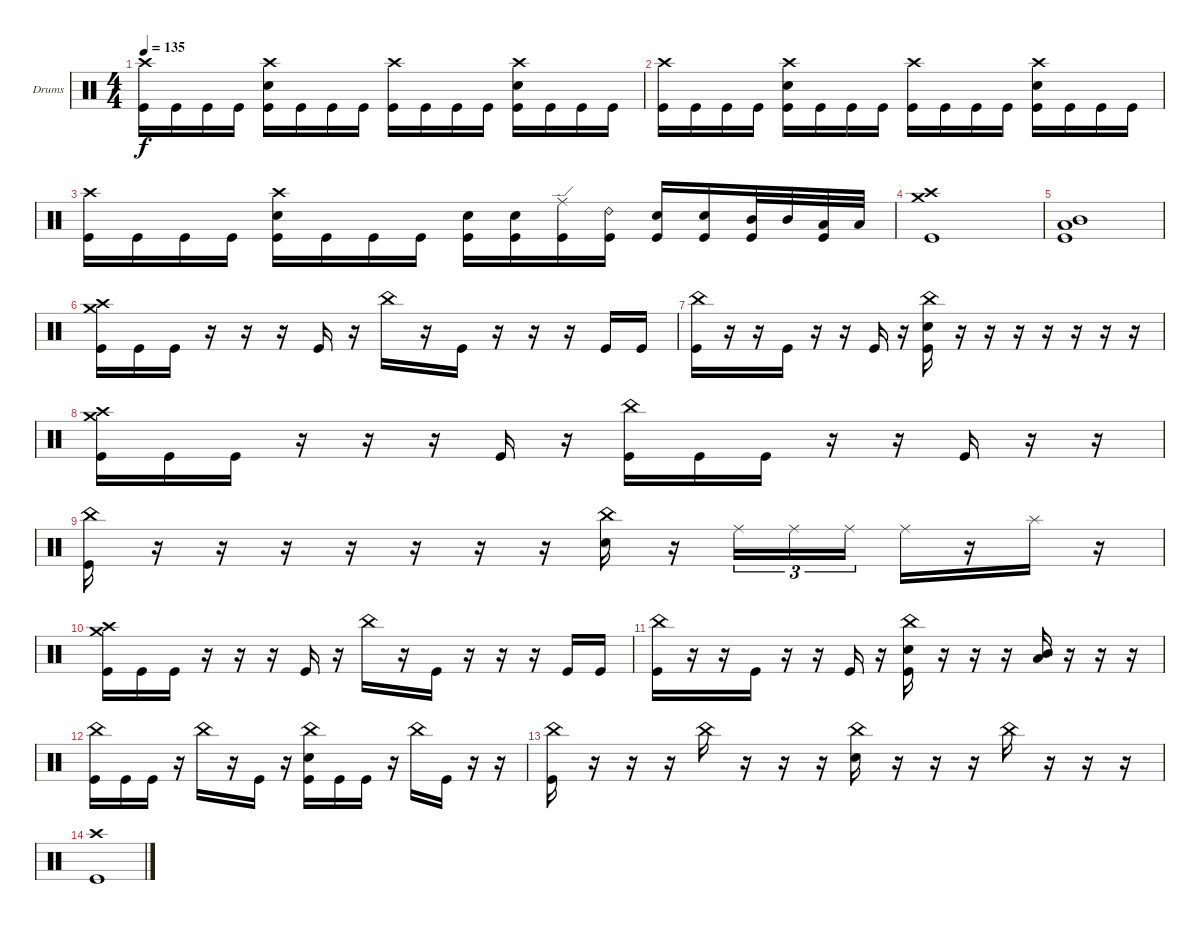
\bracketExtendMode groupsimilarinstruments
\firstSystemTrackNameOrientation horizontal
\otherSystemsTrackNameOrientation horizontal
\track ("Drumkit" "Drums") {instrument percussion}
\staff {score}
\articulation defaults
\ts (4 4)
\tempo 135
\clef neutral
\ks c
("Crash high (hit)" "Kick (hit)").16{dy f} "Kick (hit)".16 "Kick (hit)".16 "Kick (hit)".16 ("Crash high (hit)" "Snare (hit) 2" "Kick (hit)").16 "Kick (hit)".16 "Kick (hit)".16 "Kick (hit)".16 ("Crash high (hit)" "Kick (hit)").16 "Kick (hit)".16 "Kick (hit)".16 "Kick (hit)".16 ("Crash high (hit)" "Snare (hit) 2" "Kick (hit)").16 "Kick (hit)".16 "Kick (hit)".16 "Kick (hit)".16 |
("Crash high (hit)" "Kick (hit)").16 "Kick (hit)".16 "Kick (hit)".16 "Kick (hit)".16 ("Crash high (hit)" "Snare (hit) 2" "Kick (hit)").16 "Kick (hit)".16 "Kick (hit)".16 "Kick (hit)".16 ("Crash high (hit)" "Kick (hit)").16 "Kick (hit)".16 "Kick (hit)".16 "Kick (hit)".16 ("Crash high (hit)" "Snare (hit) 2" "Kick (hit)").16 "Kick (hit)".16 "Kick (hit)".16 "Kick (hit)".16 |
("Crash high (hit)" "Kick (hit)").16 "Kick (hit)".16 "Kick (hit)".16 "Kick (hit)".16 ("Crash high (hit)" "Snare (hit) 2" "Kick (hit)").16 "Kick (hit)".16 "Kick (hit)".16 "Kick (hit)".16 ("Snare (hit) 2" "Kick (hit)").16 ("Snare (hit) 2" "Kick (hit)").16 ("Ride (edge)" "Kick (hit)").16 ("Ride (bell) 2" "Kick (hit)").16 ("Snare (hit) 2" "Kick (hit)").16 ("Snare (hit) 2" "Kick (hit)").16 ("Mid Tom (hit)" "Kick (hit)").32 "Mid Tom (hit)".32 ("Low Tom (hit)" "Kick (hit)").32 "Low Tom (hit)".32 |
("Crash high (hit)" "Crash medium (hit)" "Kick (hit)").1 |
("Mid Tom (hit)" "Low Tom (hit)" "Kick (hit)").1 |
("Crash medium (hit)" "Crash high (hit)" "Kick (hit)").16 "Kick (hit)".16 "Kick (hit)".16 r.16 r.16 r.16 "Kick (hit)".16 r.16 "China (hit)".16 r.16 "Kick (hit)".16 r.16 r.16 r.16 "Kick (hit)".16 "Kick (hit)".16 |
("China (hit)" "Kick (hit)").16 r.16 r.16 "Kick (hit)".16 r.16 r.16 "Kick (hit)".16 r.16 ("China (hit)" "Snare (hit) 2" "Kick (hit)").16 r.16 r.16 r.16 r.16 r.16 r.16 r.16 |
("Crash medium (hit)" "Crash high (hit)" "Kick (hit)").16 "Kick (hit)".16 "Kick (hit)".16 r.16 r.16 r.16 "Kick (hit)".16 r.16 ("China (hit)" "Kick (hit)").16 "Kick (hit)".16 "Kick (hit)".16 r.16 r.16 "Kick (hit)".16 r.16 r.16 |
("China (hit)" "Kick (hit)").16 r.16 r.16 r.16 r.16 r.16 r.16 r.16 ("China (hit)" "Snare (hit) 2").16 r.16 "Ride (middle)".16{tu (3 2)} "Ride (middle)".16{tu (3 2)} "Ride (middle)".16{tu (3 2)} "Ride (middle)".16 r.16 "Splash (hit)".16 r.16 |
("Crash high (hit)" "Crash medium (hit)" "Kick (hit)").16 "Kick (hit)".16 "Kick (hit)".16 r.16 r.16 r.16 "Kick (hit)".16 r.16 "China (hit)".16 r.16 "Kick (hit)".16 r.16 r.16 r.16 "Kick (hit)".16 "Kick (hit)".16 |
("China (hit)" "Kick (hit)").16 r.16 r.16 "Kick (hit)".16 r.16 r.16 "Kick (hit)".16 r.16 ("China (hit)" "Snare (hit) 2" "Kick (hit)").16 r.16 r.16 r.16 ("Mid Tom (hit)" "Low Tom (hit)").16 r.16 r.16 r.16 |
("China (hit)" "Kick (hit)").16 "Kick (hit)".16 "Kick (hit)".16 r.16 "China (hit)".16 r.16 "Kick (hit)".16 r.16 ("China (hit)" "Snare (hit) 2" "Kick (hit)").16 "Kick (hit)".16 "Kick (hit)".16 r.16 "China (hit)".16 "Kick (hit)".16 r.16 r.16 |
("China (hit)" "Kick (hit)").16 r.16 r.16 r.16 "China (hit)".16 r.16 r.16 r.16 ("China (hit)" "Snare (hit) 2").16 r.16 r.16 r.16 "China (hit)".16 r.16 r.16 r.16 |
("Crash high (hit)" "Kick (hit)").1
